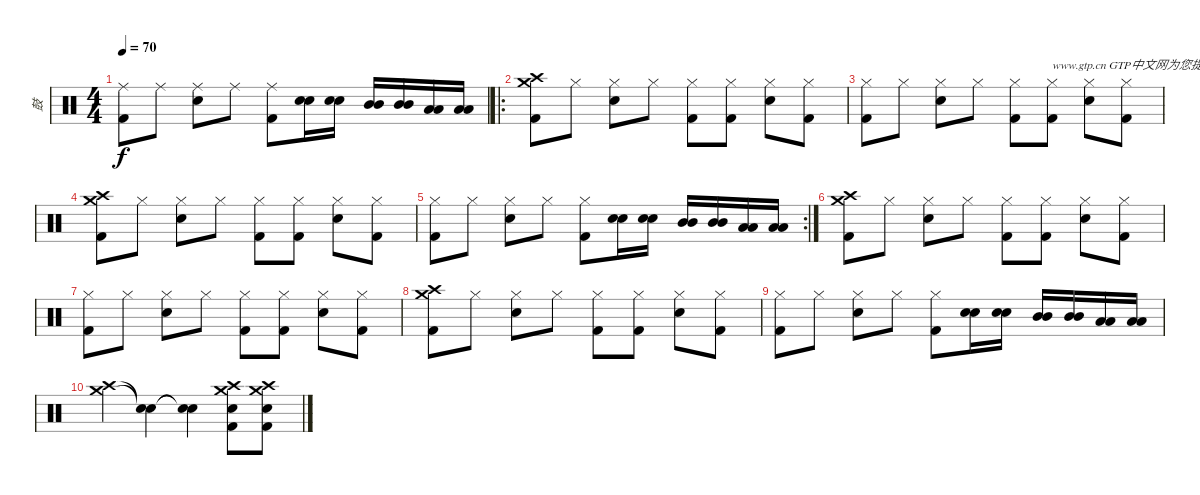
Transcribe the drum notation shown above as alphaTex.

\track ("鼓" "鼓") {instrument percussion}
\staff {score}
\articulation defaults
\ts (4 4)
\tempo 70
\clef neutral
\ks c
("Kick (hit) 2" "Ride (middle)").8{dy f} "Ride (middle)".8 ("Electric Snare (hit)" "Ride (middle)").8 "Ride (middle)".8 ("Kick (hit) 2" "Ride (middle)").8 ("Electric Snare (hit)" "Snare (hit) 2").16 ("Electric Snare (hit)" "Snare (hit) 2").16 ("Mid Tom (hit)" "Mid Tom (hit)").16 ("Mid Tom (hit)" "Mid Tom (hit)").16 ("Low Tom (hit)" "Low Tom (hit)").16 ("Low Tom (hit)" "Low Tom (hit)").16 |
\ro
("Kick (hit) 2" "Crash high (hit)" "Crash medium (hit)").8 "Hi-Hat (closed)".8 ("Electric Snare (hit)" "Hi-Hat (closed)").8 "Hi-Hat (closed)".8 ("Kick (hit) 2" "Hi-Hat (closed)").8 ("Kick (hit) 2" "Hi-Hat (closed)").8 ("Electric Snare (hit)" "Hi-Hat (closed)").8 ("Kick (hit) 2" "Hi-Hat (closed)").8 |
("Kick (hit) 2" "Hi-Hat (closed)").8 "Hi-Hat (closed)".8 ("Electric Snare (hit)" "Hi-Hat (closed)").8 "Hi-Hat (closed)".8 ("Kick (hit) 2" "Hi-Hat (closed)").8 ("Kick (hit) 2" "Hi-Hat (closed)").8{txt "www.gtp.cn GTP中文网为您提供优秀的谱子"} ("Electric Snare (hit)" "Hi-Hat (closed)").8 ("Kick (hit) 2" "Hi-Hat (closed)").8 |
("Kick (hit) 2" "Crash high (hit)" "Crash medium (hit)").8 "Hi-Hat (closed)".8 ("Electric Snare (hit)" "Hi-Hat (closed)").8 "Hi-Hat (closed)".8 ("Kick (hit) 2" "Hi-Hat (closed)").8 ("Kick (hit) 2" "Hi-Hat (closed)").8 ("Electric Snare (hit)" "Hi-Hat (closed)").8 ("Kick (hit) 2" "Hi-Hat (closed)").8 |
\rc 2
("Kick (hit) 2" "Hi-Hat (closed)").8 "Hi-Hat (closed)".8 ("Electric Snare (hit)" "Hi-Hat (closed)").8 "Hi-Hat (closed)".8 ("Kick (hit) 2" "Hi-Hat (closed)").8 ("Electric Snare (hit)" "Snare (hit) 2").16 ("Electric Snare (hit)" "Snare (hit) 2").16 ("Mid Tom (hit)" "Mid Tom (hit)").16 ("Mid Tom (hit)" "Mid Tom (hit)").16 ("Low Tom (hit)" "Low Tom (hit)").16 ("Low Tom (hit)" "Low Tom (hit)").16 |
("Kick (hit) 2" "Crash high (hit)" "Crash medium (hit)").8 "Hi-Hat (closed)".8 ("Electric Snare (hit)" "Hi-Hat (closed)").8 "Hi-Hat (closed)".8 ("Kick (hit) 2" "Hi-Hat (closed)").8 ("Kick (hit) 2" "Hi-Hat (closed)").8 ("Electric Snare (hit)" "Hi-Hat (closed)").8 ("Kick (hit) 2" "Hi-Hat (closed)").8 |
("Kick (hit) 2" "Hi-Hat (closed)").8 "Hi-Hat (closed)".8 ("Electric Snare (hit)" "Hi-Hat (closed)").8 "Hi-Hat (closed)".8 ("Kick (hit) 2" "Hi-Hat (closed)").8 ("Kick (hit) 2" "Hi-Hat (closed)").8 ("Electric Snare (hit)" "Hi-Hat (closed)").8 ("Kick (hit) 2" "Hi-Hat (closed)").8 |
("Kick (hit) 2" "Crash high (hit)" "Crash medium (hit)").8 "Hi-Hat (closed)".8 ("Electric Snare (hit)" "Hi-Hat (closed)").8 "Hi-Hat (closed)".8 ("Kick (hit) 2" "Hi-Hat (closed)").8 ("Kick (hit) 2" "Hi-Hat (closed)").8 ("Electric Snare (hit)" "Hi-Hat (closed)").8 ("Kick (hit) 2" "Hi-Hat (closed)").8 |
("Kick (hit) 2" "Hi-Hat (closed)").8 "Hi-Hat (closed)".8 ("Electric Snare (hit)" "Hi-Hat (closed)").8 "Hi-Hat (closed)".8 ("Kick (hit) 2" "Hi-Hat (closed)").8 ("Electric Snare (hit)" "Snare (hit) 2").16 ("Electric Snare (hit)" "Snare (hit) 2").16 ("Mid Tom (hit)" "Mid Tom (hit)").16 ("Mid Tom (hit)" "Mid Tom (hit)").16 ("Low Tom (hit)" "Low Tom (hit)").16 ("Low Tom (hit)" "Low Tom (hit)").16 |
("Crash medium (hit)" "Crash high (hit)").4 ("Snare (hit)"{t} "Snare (hit)"{t}).4 ("Snare (hit)"{t} "Snare (hit)"{t}).4 ("Electric Snare (hit)" "Kick (hit) 2" "Crash medium (hit)" "Crash high (hit)").8 ("Electric Snare (hit)" "Kick (hit) 2" "Crash medium (hit)" "Crash high (hit)").8
